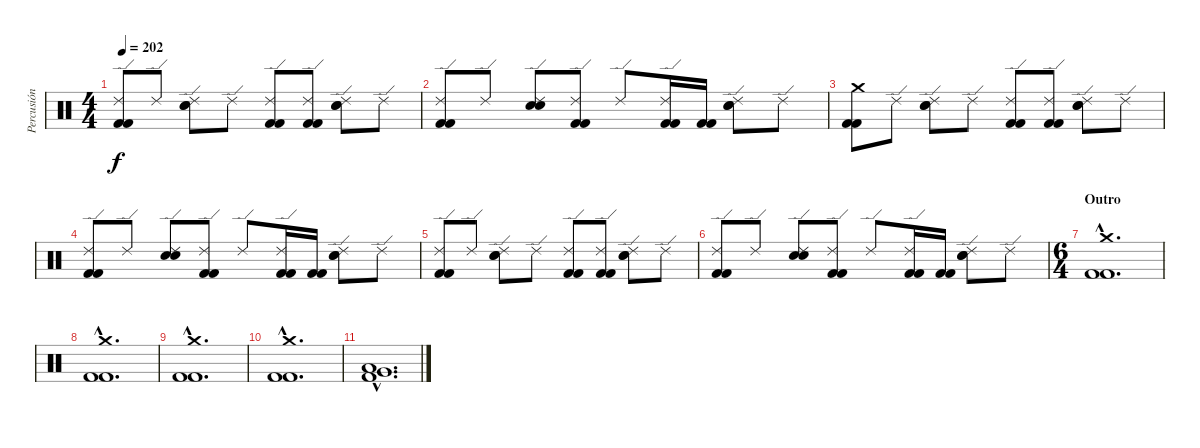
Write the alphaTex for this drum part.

\track ("Percusión" "Percusión") {instrument percussion}
\staff {score}
\articulation defaults
\ts (4 4)
\tempo 202
\clef neutral
\ks c
("Ride (edge) 2" "Kick (hit) 2" "Kick (hit) 2").8{dy f} "Ride (edge) 2".8 ("Ride (edge) 2" "Snare (hit) 2" "Snare (hit) 2").8 "Ride (edge) 2".8 ("Ride (edge) 2" "Kick (hit) 2" "Kick (hit) 2").8 ("Ride (edge) 2" "Kick (hit) 2" "Kick (hit) 2").8 ("Ride (edge) 2" "Snare (hit) 2" "Snare (hit) 2").8 "Ride (edge) 2".8 |
("Ride (edge) 2" "Kick (hit) 2" "Kick (hit) 2").8 "Ride (edge) 2".8 ("Ride (edge) 2" "Snare (hit) 2" "Snare (hit) 2").8 ("Ride (edge) 2" "Kick (hit) 2" "Kick (hit) 2").8 "Ride (edge) 2".8 ("Ride (edge) 2" "Kick (hit) 2" "Kick (hit) 2").16 ("Kick (hit) 2" "Kick (hit) 2").16 ("Ride (edge) 2" "Snare (hit) 2" "Snare (hit) 2").8 "Ride (edge) 2".8 |
("Crash medium (hit)" "Kick (hit) 2" "Kick (hit) 2").8 "Ride (edge) 2".8 ("Ride (edge) 2" "Snare (hit) 2" "Snare (hit) 2").8 "Ride (edge) 2".8 ("Ride (edge) 2" "Kick (hit) 2" "Kick (hit) 2").8 ("Ride (edge) 2" "Kick (hit) 2" "Kick (hit) 2").8 ("Ride (edge) 2" "Snare (hit) 2" "Snare (hit) 2").8 "Ride (edge) 2".8 |
("Ride (edge) 2" "Kick (hit) 2" "Kick (hit) 2").8 "Ride (edge) 2".8 ("Ride (edge) 2" "Snare (hit) 2" "Snare (hit) 2").8 ("Ride (edge) 2" "Kick (hit) 2" "Kick (hit) 2").8 "Ride (edge) 2".8 ("Ride (edge) 2" "Kick (hit) 2" "Kick (hit) 2").16 ("Kick (hit) 2" "Kick (hit) 2").16 ("Ride (edge) 2" "Snare (hit) 2" "Snare (hit) 2").8 "Ride (edge) 2".8 |
("Ride (edge) 2" "Kick (hit) 2" "Kick (hit) 2").8 "Ride (edge) 2".8 ("Ride (edge) 2" "Snare (hit) 2" "Snare (hit) 2").8 "Ride (edge) 2".8 ("Ride (edge) 2" "Kick (hit) 2" "Kick (hit) 2").8 ("Ride (edge) 2" "Kick (hit) 2" "Kick (hit) 2").8 ("Ride (edge) 2" "Snare (hit) 2" "Snare (hit) 2").8 "Ride (edge) 2".8 |
("Ride (edge) 2" "Kick (hit) 2" "Kick (hit) 2").8 "Ride (edge) 2".8 ("Ride (edge) 2" "Snare (hit) 2" "Snare (hit) 2").8 ("Ride (edge) 2" "Kick (hit) 2" "Kick (hit) 2").8 "Ride (edge) 2".8 ("Ride (edge) 2" "Kick (hit) 2" "Kick (hit) 2").16 ("Kick (hit) 2" "Kick (hit) 2").16 ("Ride (edge) 2" "Snare (hit) 2" "Snare (hit) 2").8 "Ride (edge) 2".8 |
\ts (6 4)
\section ("" "Outro")
("Crash medium (hit)"{hac} "Kick (hit) 2"{hac} "Kick (hit) 2"{hac}).1{d} |
("Crash medium (hit)"{hac} "Kick (hit) 2"{hac} "Kick (hit) 2"{hac}).1{d} |
("Crash medium (hit)"{hac} "Kick (hit) 2"{hac} "Kick (hit) 2"{hac}).1{d} |
("Crash medium (hit)"{hac} "Kick (hit) 2"{hac} "Kick (hit) 2"{hac}).1{d} |
("Very Low Tom (hit)"{hac} "Low Tom (hit)"{hac} "Kick (hit) 2"{hac}).1{d}
